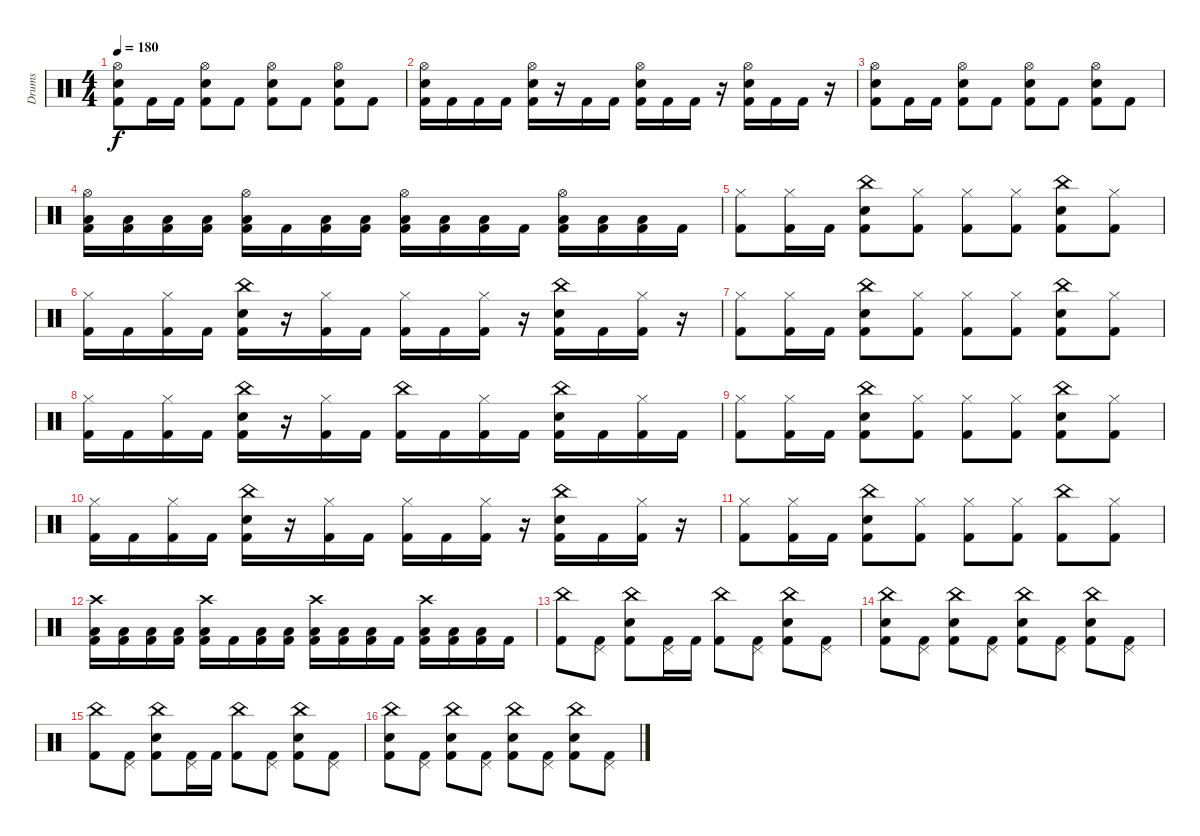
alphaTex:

\track ("Drums" "Drums") {instrument percussion}
\staff {score}
\articulation defaults
\ts (4 4)
\tempo 180
\clef neutral
\ks c
("Hi-Hat (open)" "Snare (hit) 2" "Kick (hit) 2").8{dy f} "Kick (hit) 2".16 "Kick (hit) 2".16 ("Hi-Hat (open)" "Snare (hit) 2" "Kick (hit) 2").8 "Kick (hit) 2".8 ("Hi-Hat (open)" "Snare (hit) 2" "Kick (hit) 2").8 "Kick (hit) 2".8 ("Hi-Hat (open)" "Snare (hit) 2" "Kick (hit) 2").8 "Kick (hit) 2".8 |
("Hi-Hat (open)" "Snare (hit) 2" "Kick (hit) 2").16 "Kick (hit) 2".16 "Kick (hit) 2".16 "Kick (hit) 2".16 ("Hi-Hat (open)" "Snare (hit) 2" "Kick (hit) 2").16 r.16 "Kick (hit) 2".16 "Kick (hit) 2".16 ("Hi-Hat (open)" "Snare (hit) 2" "Kick (hit) 2").16 "Kick (hit) 2".16 "Kick (hit) 2".16 r.16 ("Hi-Hat (open)" "Snare (hit) 2" "Kick (hit) 2").16 "Kick (hit) 2".16 "Kick (hit) 2".16 r.16 |
("Hi-Hat (open)" "Snare (hit) 2" "Kick (hit) 2").8 "Kick (hit) 2".16 "Kick (hit) 2".16 ("Hi-Hat (open)" "Snare (hit) 2" "Kick (hit) 2").8 "Kick (hit) 2".8 ("Hi-Hat (open)" "Snare (hit) 2" "Kick (hit) 2").8 "Kick (hit) 2".8 ("Hi-Hat (open)" "Snare (hit) 2" "Kick (hit) 2").8 "Kick (hit) 2".8 |
("Hi-Hat (open)" "Low Floor Tom (hit)" "Kick (hit) 2").16 ("Low Floor Tom (hit)" "Kick (hit) 2").16 ("Low Floor Tom (hit)" "Kick (hit) 2").16 ("Low Floor Tom (hit)" "Kick (hit) 2").16 ("Hi-Hat (open)" "Low Floor Tom (hit)" "Kick (hit) 2").16 "Kick (hit) 2".16 ("Low Tom (hit)" "Kick (hit) 2").16 ("Low Tom (hit)" "Kick (hit) 2").16 ("Hi-Hat (open)" "Low Tom (hit)" "Kick (hit) 2").16 ("Low Tom (hit)" "Kick (hit) 2").16 ("Low Tom (hit)" "Kick (hit) 2").16 "Kick (hit) 2".16 ("Hi-Hat (open)" "Low Floor Tom (hit)" "Kick (hit) 2").16 ("Low Floor Tom (hit)" "Kick (hit) 2").16 ("Low Floor Tom (hit)" "Kick (hit) 2").16 "Kick (hit) 2".16 |
("Hi-Hat (closed)" "Kick (hit) 2").8 ("Hi-Hat (closed)" "Kick (hit) 2").16 "Kick (hit) 2".16 ("China (hit)" "Snare (hit) 2" "Kick (hit) 2").8 ("Hi-Hat (closed)" "Kick (hit) 2").8 ("Hi-Hat (closed)" "Kick (hit) 2").8 ("Hi-Hat (closed)" "Kick (hit) 2").8 ("China (hit)" "Snare (hit) 2" "Kick (hit) 2").8 ("Hi-Hat (closed)" "Kick (hit) 2").8 |
("Hi-Hat (closed)" "Kick (hit) 2").16 "Kick (hit) 2".16 ("Hi-Hat (closed)" "Kick (hit) 2").16 "Kick (hit) 2".16 ("China (hit)" "Snare (hit) 2" "Kick (hit) 2").16 r.16 ("Hi-Hat (closed)" "Kick (hit) 2").16 "Kick (hit) 2".16 ("Hi-Hat (closed)" "Kick (hit) 2").16 "Kick (hit) 2".16 ("Hi-Hat (closed)" "Kick (hit) 2").16 r.16 ("China (hit)" "Snare (hit) 2" "Kick (hit) 2").16 "Kick (hit) 2".16 ("Hi-Hat (closed)" "Kick (hit) 2").16 r.16 |
("Hi-Hat (closed)" "Kick (hit) 2").8 ("Hi-Hat (closed)" "Kick (hit) 2").16 "Kick (hit) 2".16 ("China (hit)" "Snare (hit) 2" "Kick (hit) 2").8 ("Hi-Hat (closed)" "Kick (hit) 2").8 ("Hi-Hat (closed)" "Kick (hit) 2").8 ("Hi-Hat (closed)" "Kick (hit) 2").8 ("China (hit)" "Snare (hit) 2" "Kick (hit) 2").8 ("Hi-Hat (closed)" "Kick (hit) 2").8 |
("Hi-Hat (closed)" "Kick (hit) 2").16 "Kick (hit) 2".16 ("Hi-Hat (closed)" "Kick (hit) 2").16 "Kick (hit) 2".16 ("China (hit)" "Snare (hit) 2" "Kick (hit) 2").16 r.16 ("Hi-Hat (closed)" "Kick (hit) 2").16 "Kick (hit) 2".16 ("China (hit)" "Kick (hit) 2").16 "Kick (hit) 2".16 ("Hi-Hat (closed)" "Kick (hit) 2").16 "Kick (hit) 2".16 ("China (hit)" "Snare (hit) 2" "Kick (hit) 2").16 "Kick (hit) 2".16 ("Hi-Hat (closed)" "Kick (hit) 2").16 "Kick (hit) 2".16 |
("Hi-Hat (closed)" "Kick (hit) 2").8 ("Hi-Hat (closed)" "Kick (hit) 2").16 "Kick (hit) 2".16 ("China (hit)" "Snare (hit) 2" "Kick (hit) 2").8 ("Hi-Hat (closed)" "Kick (hit) 2").8 ("Hi-Hat (closed)" "Kick (hit) 2").8 ("Hi-Hat (closed)" "Kick (hit) 2").8 ("China (hit)" "Snare (hit) 2" "Kick (hit) 2").8 ("Hi-Hat (closed)" "Kick (hit) 2").8 |
("Hi-Hat (closed)" "Kick (hit) 2").16 "Kick (hit) 2".16 ("Hi-Hat (closed)" "Kick (hit) 2").16 "Kick (hit) 2".16 ("China (hit)" "Snare (hit) 2" "Kick (hit) 2").16 r.16 ("Hi-Hat (closed)" "Kick (hit) 2").16 "Kick (hit) 2".16 ("Hi-Hat (closed)" "Kick (hit) 2").16 "Kick (hit) 2".16 ("Hi-Hat (closed)" "Kick (hit) 2").16 r.16 ("China (hit)" "Snare (hit) 2" "Kick (hit) 2").16 "Kick (hit) 2".16 ("Hi-Hat (closed)" "Kick (hit) 2").16 r.16 |
("Hi-Hat (closed)" "Kick (hit) 2").8 ("Hi-Hat (closed)" "Kick (hit) 2").16 "Kick (hit) 2".16 ("China (hit)" "Snare (hit) 2" "Kick (hit) 2").8 ("Hi-Hat (closed)" "Kick (hit) 2").8 ("Hi-Hat (closed)" "Kick (hit) 2").8 ("Hi-Hat (closed)" "Kick (hit) 2").8 ("China (hit)" "Kick (hit) 2").8 ("Hi-Hat (closed)" "Kick (hit) 2").8 |
("Crash high (hit)" "Low Floor Tom (hit)" "Kick (hit) 2").16 ("Low Floor Tom (hit)" "Kick (hit) 2").16 ("Low Floor Tom (hit)" "Kick (hit) 2").16 ("Low Floor Tom (hit)" "Kick (hit) 2").16 ("Crash high (hit)" "Low Floor Tom (hit)" "Kick (hit) 2").16 "Kick (hit) 2".16 ("Low Tom (hit)" "Kick (hit) 2").16 ("Low Tom (hit)" "Kick (hit) 2").16 ("Crash high (hit)" "Low Tom (hit)" "Kick (hit) 2").16 ("Low Tom (hit)" "Kick (hit) 2").16 ("Low Tom (hit)" "Kick (hit) 2").16 "Kick (hit) 2".16 ("Crash high (hit)" "Low Floor Tom (hit)" "Kick (hit) 2").16 ("Low Floor Tom (hit)" "Kick (hit) 2").16 ("Low Floor Tom (hit)" "Kick (hit) 2").16 "Kick (hit) 2".16 |
("China (hit)" "Kick (hit) 2").8 ("Pedal Hi-Hat (hit)" "Kick (hit) 2").8 ("China (hit)" "Snare (hit) 2" "Kick (hit) 2").8 ("Pedal Hi-Hat (hit)" "Kick (hit) 2").16 "Kick (hit) 2".16 ("China (hit)" "Kick (hit) 2").8 ("Pedal Hi-Hat (hit)" "Kick (hit) 2").8 ("China (hit)" "Snare (hit) 2" "Kick (hit) 2").8 ("Pedal Hi-Hat (hit)" "Kick (hit) 2").8 |
("China (hit)" "Snare (hit) 2" "Kick (hit) 2").8 ("Pedal Hi-Hat (hit)" "Kick (hit) 2").8 ("China (hit)" "Snare (hit) 2" "Kick (hit) 2").8 ("Pedal Hi-Hat (hit)" "Kick (hit) 2").8 ("China (hit)" "Snare (hit) 2" "Kick (hit) 2").8 ("Pedal Hi-Hat (hit)" "Kick (hit) 2").8 ("China (hit)" "Snare (hit) 2" "Kick (hit) 2").8 ("Pedal Hi-Hat (hit)" "Kick (hit) 2").8 |
("China (hit)" "Kick (hit) 2").8 ("Pedal Hi-Hat (hit)" "Kick (hit) 2").8 ("China (hit)" "Snare (hit) 2" "Kick (hit) 2").8 ("Pedal Hi-Hat (hit)" "Kick (hit) 2").16 "Kick (hit) 2".16 ("China (hit)" "Kick (hit) 2").8 ("Pedal Hi-Hat (hit)" "Kick (hit) 2").8 ("China (hit)" "Snare (hit) 2" "Kick (hit) 2").8 ("Pedal Hi-Hat (hit)" "Kick (hit) 2").8 |
("China (hit)" "Snare (hit) 2" "Kick (hit) 2").8 ("Pedal Hi-Hat (hit)" "Kick (hit) 2").8 ("China (hit)" "Snare (hit) 2" "Kick (hit) 2").8 ("Pedal Hi-Hat (hit)" "Kick (hit) 2").8 ("China (hit)" "Snare (hit) 2" "Kick (hit) 2").8 ("Pedal Hi-Hat (hit)" "Kick (hit) 2").8 ("China (hit)" "Snare (hit) 2" "Kick (hit) 2").8 ("Pedal Hi-Hat (hit)" "Kick (hit) 2").8
